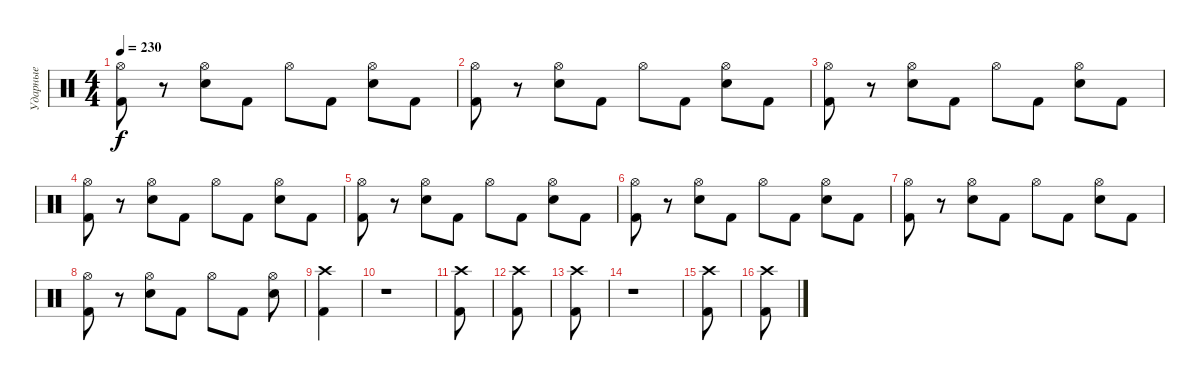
\track ("Ударные" "Ударные") {instrument percussion}
\staff {score}
\articulation defaults
\ts (4 4)
\tempo 230
\clef neutral
\ks c
("Hi-Hat (open)" "Kick (hit) 2").8{dy f} r.8 ("Hi-Hat (open)" "Electric Snare (hit)").8 "Kick (hit) 2".8 "Hi-Hat (open)".8 "Kick (hit) 2".8 ("Hi-Hat (open)" "Electric Snare (hit)").8 "Kick (hit) 2".8 |
("Hi-Hat (open)" "Kick (hit) 2").8 r.8 ("Hi-Hat (open)" "Electric Snare (hit)").8 "Kick (hit) 2".8 "Hi-Hat (open)".8 "Kick (hit) 2".8 ("Hi-Hat (open)" "Electric Snare (hit)").8 "Kick (hit) 2".8 |
("Hi-Hat (open)" "Kick (hit) 2").8 r.8 ("Hi-Hat (open)" "Electric Snare (hit)").8 "Kick (hit) 2".8 "Hi-Hat (open)".8 "Kick (hit) 2".8 ("Hi-Hat (open)" "Electric Snare (hit)").8 "Kick (hit) 2".8 |
("Hi-Hat (open)" "Kick (hit) 2").8 r.8 ("Hi-Hat (open)" "Electric Snare (hit)").8 "Kick (hit) 2".8 "Hi-Hat (open)".8 "Kick (hit) 2".8 ("Hi-Hat (open)" "Electric Snare (hit)").8 "Kick (hit) 2".8 |
("Hi-Hat (open)" "Kick (hit) 2").8 r.8 ("Hi-Hat (open)" "Electric Snare (hit)").8 "Kick (hit) 2".8 "Hi-Hat (open)".8 "Kick (hit) 2".8 ("Hi-Hat (open)" "Electric Snare (hit)").8 "Kick (hit) 2".8 |
("Hi-Hat (open)" "Kick (hit) 2").8 r.8 ("Hi-Hat (open)" "Electric Snare (hit)").8 "Kick (hit) 2".8 "Hi-Hat (open)".8 "Kick (hit) 2".8 ("Hi-Hat (open)" "Electric Snare (hit)").8 "Kick (hit) 2".8 |
("Hi-Hat (open)" "Kick (hit) 2").8 r.8 ("Hi-Hat (open)" "Electric Snare (hit)").8 "Kick (hit) 2".8 "Hi-Hat (open)".8 "Kick (hit) 2".8 ("Hi-Hat (open)" "Electric Snare (hit)").8 "Kick (hit) 2".8 |
("Hi-Hat (open)" "Kick (hit) 2").8 r.8 ("Hi-Hat (open)" "Electric Snare (hit)").8 "Kick (hit) 2".8 "Hi-Hat (open)".8 "Kick (hit) 2".8 ("Hi-Hat (open)" "Electric Snare (hit)").8 |
("Crash high (hit)" "Kick (hit) 2").4 |
r.1 |
("Crash high (hit)" "Kick (hit) 2").8 |
("Crash high (hit)" "Kick (hit) 2").8 |
("Crash high (hit)" "Kick (hit) 2").8 |
r.1 |
("Crash high (hit)" "Kick (hit) 2").8 |
("Crash high (hit)" "Kick (hit) 2").8
